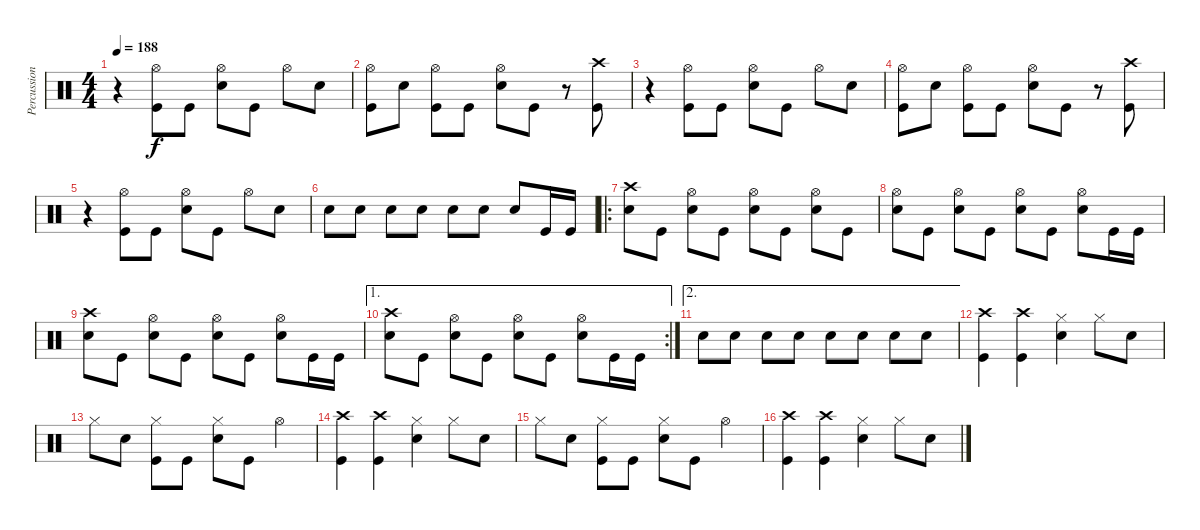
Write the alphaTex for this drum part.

\track ("Percussion" "Percussion") {instrument percussion}
\staff {score}
\articulation defaults
\ts (4 4)
\tempo 188
\clef neutral
\ks c
r.4{dy f} ("Kick (hit)" "Hi-Hat (open)").8 "Kick (hit)".8 ("Snare (hit) 2" "Hi-Hat (open)").8 "Kick (hit)".8 "Hi-Hat (open)".8 "Snare (hit) 2".8 |
("Kick (hit)" "Hi-Hat (open)").8 "Snare (hit) 2".8 ("Kick (hit)" "Hi-Hat (open)").8 "Kick (hit)".8 ("Snare (hit) 2" "Hi-Hat (open)").8 "Kick (hit)".8 r.8 ("Kick (hit)" "Crash high (hit)").8 |
r.4 ("Kick (hit)" "Hi-Hat (open)").8 "Kick (hit)".8 ("Snare (hit) 2" "Hi-Hat (open)").8 "Kick (hit)".8 "Hi-Hat (open)".8 "Snare (hit) 2".8 |
("Kick (hit)" "Hi-Hat (open)").8 "Snare (hit) 2".8 ("Kick (hit)" "Hi-Hat (open)").8 "Kick (hit)".8 ("Snare (hit) 2" "Hi-Hat (open)").8 "Kick (hit)".8 r.8 ("Kick (hit)" "Crash high (hit)").8 |
r.4 ("Kick (hit)" "Hi-Hat (open)").8 "Kick (hit)".8 ("Snare (hit) 2" "Hi-Hat (open)").8 "Kick (hit)".8 "Hi-Hat (open)".8 "Snare (hit) 2".8 |
"Snare (hit) 2".8 "Snare (hit) 2".8 "Snare (hit) 2".8 "Snare (hit) 2".8 "Snare (hit) 2".8 "Snare (hit) 2".8 "Snare (hit) 2".8 "Kick (hit)".16 "Kick (hit)".16 |
\ro
("Snare (hit) 2" "Crash high (hit)").8 "Kick (hit)".8 ("Snare (hit) 2" "Hi-Hat (open)").8 "Kick (hit)".8 ("Snare (hit) 2" "Hi-Hat (open)").8 "Kick (hit)".8 ("Snare (hit) 2" "Hi-Hat (open)").8 "Kick (hit)".8 |
("Snare (hit) 2" "Hi-Hat (open)").8 "Kick (hit)".8 ("Snare (hit) 2" "Hi-Hat (open)").8 "Kick (hit)".8 ("Snare (hit) 2" "Hi-Hat (open)").8 "Kick (hit)".8 ("Snare (hit) 2" "Hi-Hat (open)").8 "Kick (hit)".16 "Kick (hit)".16 |
("Snare (hit) 2" "Crash high (hit)").8 "Kick (hit)".8 ("Snare (hit) 2" "Hi-Hat (open)").8 "Kick (hit)".8 ("Snare (hit) 2" "Hi-Hat (open)").8 "Kick (hit)".8 ("Snare (hit) 2" "Hi-Hat (open)").8 "Kick (hit)".16 "Kick (hit)".16 |
\ae 1
\rc 2
("Snare (hit) 2" "Crash high (hit)").8 "Kick (hit)".8 ("Snare (hit) 2" "Hi-Hat (open)").8 "Kick (hit)".8 ("Snare (hit) 2" "Hi-Hat (open)").8 "Kick (hit)".8 ("Snare (hit) 2" "Hi-Hat (open)").8 "Kick (hit)".16 "Kick (hit)".16 |
\ae 2 "Snare (hit) 2".8 "Snare (hit) 2".8 "Snare (hit) 2".8 "Snare (hit) 2".8 "Snare (hit) 2".8 "Snare (hit) 2".8 "Snare (hit) 2".8 "Snare (hit) 2".8
|
("Crash high (hit)" "Kick (hit)").4 ("Crash high (hit)" "Kick (hit)").4 ("Hi-Hat (closed)" "Snare (hit) 2").4 "Hi-Hat (closed)".8 "Snare (hit) 2".8 |
"Hi-Hat (closed)".8 "Snare (hit) 2".8 ("Kick (hit)" "Hi-Hat (closed)").8 "Kick (hit)".8 ("Snare (hit) 2" "Hi-Hat (closed)").8 "Kick (hit)".8 "Hi-Hat (open)".4 |
("Crash high (hit)" "Kick (hit)").4 ("Crash high (hit)" "Kick (hit)").4 ("Hi-Hat (closed)" "Snare (hit) 2").4 "Hi-Hat (closed)".8 "Snare (hit) 2".8 |
"Hi-Hat (closed)".8 "Snare (hit) 2".8 ("Kick (hit)" "Hi-Hat (closed)").8 "Kick (hit)".8 ("Snare (hit) 2" "Hi-Hat (closed)").8 "Kick (hit)".8 "Hi-Hat (open)".4 |
("Crash high (hit)" "Kick (hit)").4 ("Crash high (hit)" "Kick (hit)").4 ("Hi-Hat (closed)" "Snare (hit) 2").4 "Hi-Hat (closed)".8 "Snare (hit) 2".8
